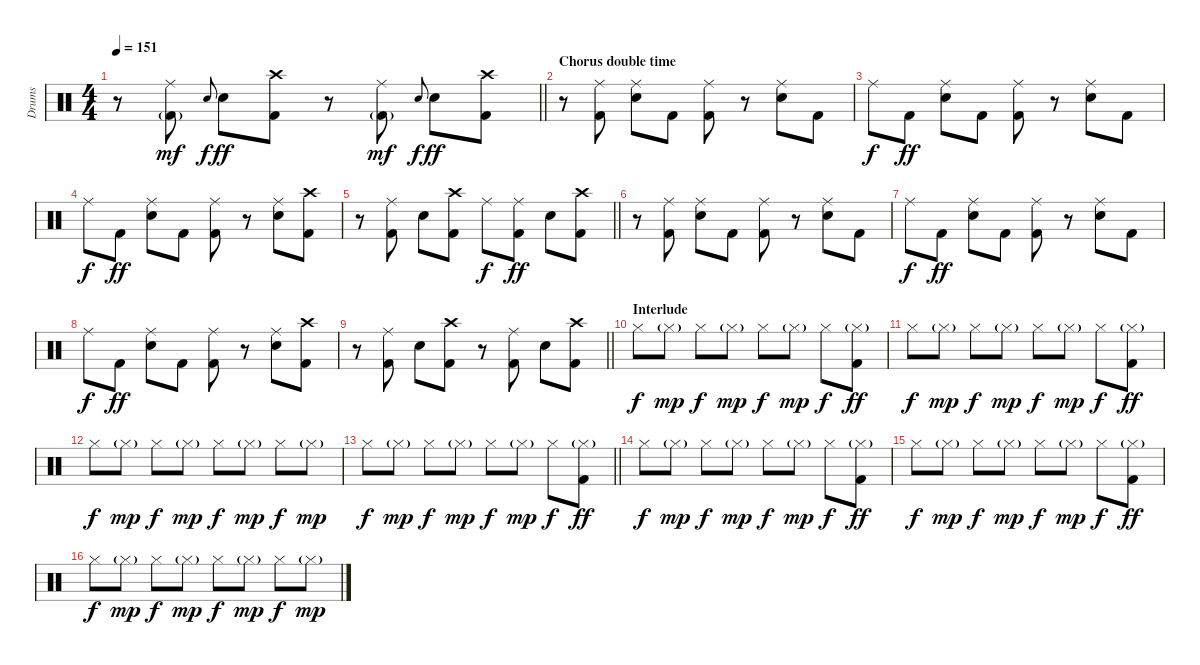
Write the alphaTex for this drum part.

\track ("Drums" "Drums") {instrument percussion}
\staff {score}
\articulation defaults
\ts (4 4)
\tempo 151
\clef neutral
\barLineRight lightlight
\ks c
r.8{dy ff} ("Ride (middle)" "Kick (hit) 2"{g}).8{dy mf} "Electric Snare (hit)".8{gr onbeat dy f} "Electric Snare (hit)".8{dy ff} ("Crash high (hit)" "Kick (hit) 2").8 r.8 ("Ride (middle)" "Kick (hit) 2"{g}).8{dy mf} "Electric Snare (hit)".8{gr onbeat dy f} "Electric Snare (hit)".8{dy ff} ("Crash high (hit)" "Kick (hit) 2").8 |
\section ("" "Chorus double time")
r.8 ("Ride (middle)" "Kick (hit) 2").8 ("Ride (middle)" "Electric Snare (hit)").8 "Kick (hit) 2".8 ("Ride (middle)" "Kick (hit) 2").8 r.8 ("Ride (middle)" "Electric Snare (hit)").8 "Kick (hit) 2".8 |
"Ride (middle)".8{dy f} "Kick (hit) 2".8{dy ff} ("Ride (middle)" "Electric Snare (hit)").8 "Kick (hit) 2".8 ("Ride (middle)" "Kick (hit) 2").8 r.8 ("Ride (middle)" "Electric Snare (hit)").8 "Kick (hit) 2".8 |
"Ride (middle)".8{dy f} "Kick (hit) 2".8{dy ff} ("Ride (middle)" "Electric Snare (hit)").8 "Kick (hit) 2".8 ("Ride (middle)" "Kick (hit) 2").8 r.8 ("Ride (middle)" "Electric Snare (hit)").8 ("Crash high (hit)" "Kick (hit) 2").8 |
\barLineRight lightlight
r.8 ("Ride (middle)" "Kick (hit) 2").8 "Electric Snare (hit)".8 ("Crash high (hit)" "Kick (hit) 2").8 "Ride (middle)".8{dy f} ("Ride (middle)" "Kick (hit) 2").8{dy ff} "Electric Snare (hit)".8 ("Crash high (hit)" "Kick (hit) 2").8 |
r.8 ("Ride (middle)" "Kick (hit) 2").8 ("Ride (middle)" "Electric Snare (hit)").8 "Kick (hit) 2".8 ("Ride (middle)" "Kick (hit) 2").8 r.8 ("Ride (middle)" "Electric Snare (hit)").8 "Kick (hit) 2".8 |
"Ride (middle)".8{dy f} "Kick (hit) 2".8{dy ff} ("Ride (middle)" "Electric Snare (hit)").8 "Kick (hit) 2".8 ("Ride (middle)" "Kick (hit) 2").8 r.8 ("Ride (middle)" "Electric Snare (hit)").8 "Kick (hit) 2".8 |
"Ride (middle)".8{dy f} "Kick (hit) 2".8{dy ff} ("Ride (middle)" "Electric Snare (hit)").8 "Kick (hit) 2".8 ("Ride (middle)" "Kick (hit) 2").8 r.8 ("Ride (middle)" "Electric Snare (hit)").8 ("Crash high (hit)" "Kick (hit) 2").8 |
\barLineRight lightlight
r.8 ("Ride (middle)" "Kick (hit) 2").8 "Electric Snare (hit)".8 ("Crash high (hit)" "Kick (hit) 2").8 r.8 ("Ride (middle)" "Kick (hit) 2").8 "Electric Snare (hit)".8 ("Crash high (hit)" "Kick (hit) 2").8 |
\section ("" "Interlude")
"Hi-Hat (closed)".8{dy f} "Hi-Hat (closed)"{g}.8{dy mp} "Hi-Hat (closed)".8{dy f} "Hi-Hat (closed)"{g}.8{dy mp} "Hi-Hat (closed)".8{dy f} "Hi-Hat (closed)"{g}.8{dy mp} "Hi-Hat (closed)".8{dy f} ("Hi-Hat (closed)"{g} "Kick (hit) 2").8{dy ff} |
"Hi-Hat (closed)".8{dy f} "Hi-Hat (closed)"{g}.8{dy mp} "Hi-Hat (closed)".8{dy f} "Hi-Hat (closed)"{g}.8{dy mp} "Hi-Hat (closed)".8{dy f} "Hi-Hat (closed)"{g}.8{dy mp} "Hi-Hat (closed)".8{dy f} ("Hi-Hat (closed)"{g} "Kick (hit) 2").8{dy ff} |
"Hi-Hat (closed)".8{dy f} "Hi-Hat (closed)"{g}.8{dy mp} "Hi-Hat (closed)".8{dy f} "Hi-Hat (closed)"{g}.8{dy mp} "Hi-Hat (closed)".8{dy f} "Hi-Hat (closed)"{g}.8{dy mp} "Hi-Hat (closed)".8{dy f} "Hi-Hat (closed)"{g}.8{dy mp} |
\barLineRight lightlight "Hi-Hat (closed)".8{dy f} "Hi-Hat (closed)"{g}.8{dy mp} "Hi-Hat (closed)".8{dy f} "Hi-Hat (closed)"{g}.8{dy mp} "Hi-Hat (closed)".8{dy f} "Hi-Hat (closed)"{g}.8{dy mp} "Hi-Hat (closed)".8{dy f}
("Hi-Hat (closed)"{g} "Kick (hit) 2").8{dy ff} |
"Hi-Hat (closed)".8{dy f} "Hi-Hat (closed)"{g}.8{dy mp} "Hi-Hat (closed)".8{dy f} "Hi-Hat (closed)"{g}.8{dy mp} "Hi-Hat (closed)".8{dy f} "Hi-Hat (closed)"{g}.8{dy mp} "Hi-Hat (closed)".8{dy f} ("Hi-Hat (closed)"{g} "Kick (hit) 2").8{dy ff} |
"Hi-Hat (closed)".8{dy f} "Hi-Hat (closed)"{g}.8{dy mp} "Hi-Hat (closed)".8{dy f} "Hi-Hat (closed)"{g}.8{dy mp} "Hi-Hat (closed)".8{dy f} "Hi-Hat (closed)"{g}.8{dy mp} "Hi-Hat (closed)".8{dy f} ("Hi-Hat (closed)"{g} "Kick (hit) 2").8{dy ff} |
"Hi-Hat (closed)".8{dy f} "Hi-Hat (closed)"{g}.8{dy mp} "Hi-Hat (closed)".8{dy f} "Hi-Hat (closed)"{g}.8{dy mp} "Hi-Hat (closed)".8{dy f} "Hi-Hat (closed)"{g}.8{dy mp} "Hi-Hat (closed)".8{dy f} "Hi-Hat (closed)"{g}.8{dy mp}
